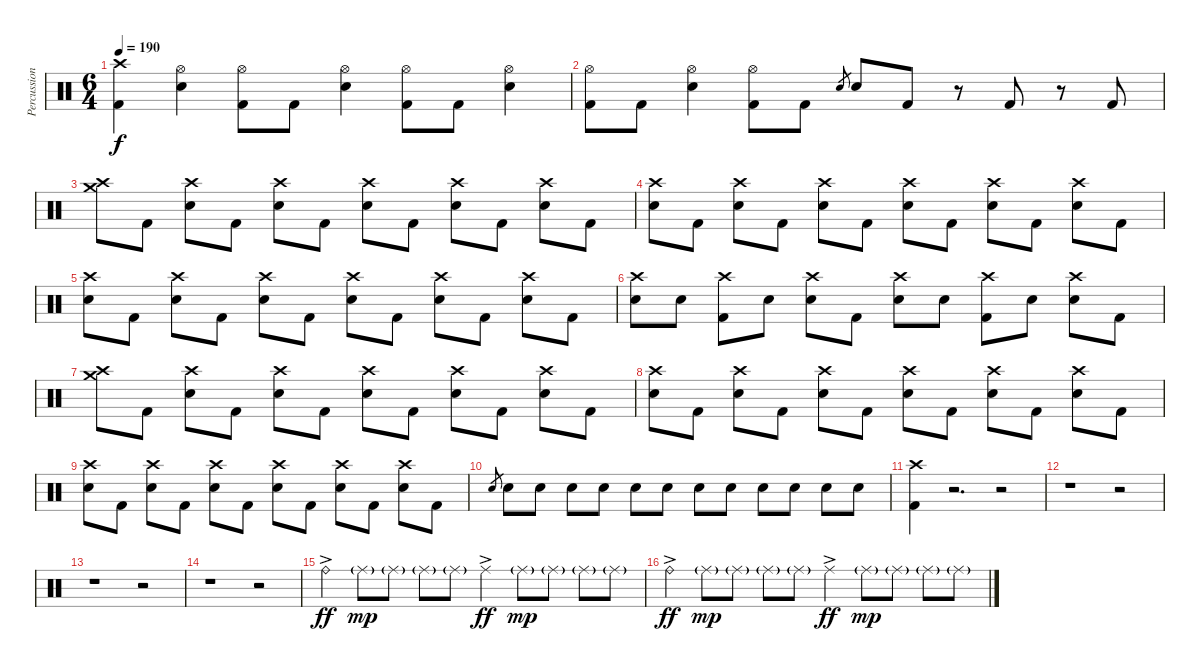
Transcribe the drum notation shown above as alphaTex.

\track ("Percussion" "Percussion") {instrument percussion}
\staff {score}
\articulation defaults
\ts (6 4)
\tempo 190
\clef neutral
\ks c
("Crash high (hit)" "Kick (hit) 2").4{dy f} ("Hi-Hat (open)" "Electric Snare (hit)").4 ("Hi-Hat (open)" "Kick (hit) 2").8 "Kick (hit) 2".8 ("Hi-Hat (open)" "Electric Snare (hit)").4 ("Hi-Hat (open)" "Kick (hit) 2").8 "Kick (hit) 2".8 ("Hi-Hat (open)" "Electric Snare (hit)").4 |
("Hi-Hat (open)" "Kick (hit) 2").8 "Kick (hit) 2".8 ("Hi-Hat (open)" "Electric Snare (hit)").4 ("Hi-Hat (open)" "Kick (hit) 2").8 "Kick (hit) 2".8 "Electric Snare (hit)".8{gr} "Electric Snare (hit)".8 "Kick (hit) 2".8 r.8 "Kick (hit) 2".8 r.8 "Kick (hit) 2".8 |
("Crash high (hit)" "Crash medium (hit)").8 "Kick (hit) 2".8 ("Crash high (hit)" "Electric Snare (hit)").8 "Kick (hit) 2".8 ("Crash high (hit)" "Electric Snare (hit)").8 "Kick (hit) 2".8 ("Crash high (hit)" "Electric Snare (hit)").8 "Kick (hit) 2".8 ("Crash high (hit)" "Electric Snare (hit)").8 "Kick (hit) 2".8 ("Crash high (hit)" "Electric Snare (hit)").8 "Kick (hit) 2".8 |
("Crash high (hit)" "Electric Snare (hit)").8 "Kick (hit) 2".8 ("Crash high (hit)" "Electric Snare (hit)").8 "Kick (hit) 2".8 ("Crash high (hit)" "Electric Snare (hit)").8 "Kick (hit) 2".8 ("Crash high (hit)" "Electric Snare (hit)").8 "Kick (hit) 2".8 ("Crash high (hit)" "Electric Snare (hit)").8 "Kick (hit) 2".8 ("Crash high (hit)" "Electric Snare (hit)").8 "Kick (hit) 2".8 |
("Crash high (hit)" "Electric Snare (hit)").8 "Kick (hit) 2".8 ("Crash high (hit)" "Electric Snare (hit)").8 "Kick (hit) 2".8 ("Crash high (hit)" "Electric Snare (hit)").8 "Kick (hit) 2".8 ("Crash high (hit)" "Electric Snare (hit)").8 "Kick (hit) 2".8 ("Crash high (hit)" "Electric Snare (hit)").8 "Kick (hit) 2".8 ("Crash high (hit)" "Electric Snare (hit)").8 "Kick (hit) 2".8 |
("Crash high (hit)" "Electric Snare (hit)").8 "Electric Snare (hit)".8 ("Crash high (hit)" "Kick (hit) 2").8 "Electric Snare (hit)".8 ("Crash high (hit)" "Electric Snare (hit)").8 "Kick (hit) 2".8 ("Crash high (hit)" "Electric Snare (hit)").8 "Electric Snare (hit)".8 ("Crash high (hit)" "Kick (hit) 2").8 "Electric Snare (hit)".8 ("Crash high (hit)" "Electric Snare (hit)").8 "Kick (hit) 2".8 |
("Crash high (hit)" "Crash medium (hit)").8 "Kick (hit) 2".8 ("Crash high (hit)" "Electric Snare (hit)").8 "Kick (hit) 2".8 ("Crash high (hit)" "Electric Snare (hit)").8 "Kick (hit) 2".8 ("Crash high (hit)" "Electric Snare (hit)").8 "Kick (hit) 2".8 ("Crash high (hit)" "Electric Snare (hit)").8 "Kick (hit) 2".8 ("Crash high (hit)" "Electric Snare (hit)").8 "Kick (hit) 2".8 |
("Crash high (hit)" "Electric Snare (hit)").8 "Kick (hit) 2".8 ("Crash high (hit)" "Electric Snare (hit)").8 "Kick (hit) 2".8 ("Crash high (hit)" "Electric Snare (hit)").8 "Kick (hit) 2".8 ("Crash high (hit)" "Electric Snare (hit)").8 "Kick (hit) 2".8 ("Crash high (hit)" "Electric Snare (hit)").8 "Kick (hit) 2".8 ("Crash high (hit)" "Electric Snare (hit)").8 "Kick (hit) 2".8 |
("Crash high (hit)" "Electric Snare (hit)").8 "Kick (hit) 2".8 ("Crash high (hit)" "Electric Snare (hit)").8 "Kick (hit) 2".8 ("Crash high (hit)" "Electric Snare (hit)").8 "Kick (hit) 2".8 ("Crash high (hit)" "Electric Snare (hit)").8 "Kick (hit) 2".8 ("Crash high (hit)" "Electric Snare (hit)").8 "Kick (hit) 2".8 ("Crash high (hit)" "Electric Snare (hit)").8 "Kick (hit) 2".8 |
"Electric Snare (hit)".8{gr} "Electric Snare (hit)".8 "Electric Snare (hit)".8 "Electric Snare (hit)".8 "Electric Snare (hit)".8 "Electric Snare (hit)".8 "Electric Snare (hit)".8 "Electric Snare (hit)".8 "Electric Snare (hit)".8 "Electric Snare (hit)".8 "Electric Snare (hit)".8 "Electric Snare (hit)".8 "Electric Snare (hit)".8 |
("Crash high (hit)" "Kick (hit) 2").4 r.2{d} r.2 |
r.1 r.2 |
r.1 r.2 |
r.1 r.2 |
"Ride (bell)"{ac}.4{dy ff} "Ride (middle)"{g}.8{dy mp} "Ride (middle)"{g}.8 "Ride (middle)"{g}.8 "Ride (middle)"{g}.8 "Ride (middle)"{ac}.4{dy ff} "Ride (middle)"{g}.8{dy mp} "Ride (middle)"{g}.8 "Ride (middle)"{g}.8 "Ride (middle)"{g}.8 |
"Ride (bell)"{ac}.4{dy ff} "Ride (middle)"{g}.8{dy mp} "Ride (middle)"{g}.8 "Ride (middle)"{g}.8 "Ride (middle)"{g}.8 "Ride (middle)"{ac}.4{dy ff} "Ride (middle)"{g}.8{dy mp} "Ride (middle)"{g}.8 "Ride (middle)"{g}.8 "Ride (middle)"{g}.8
